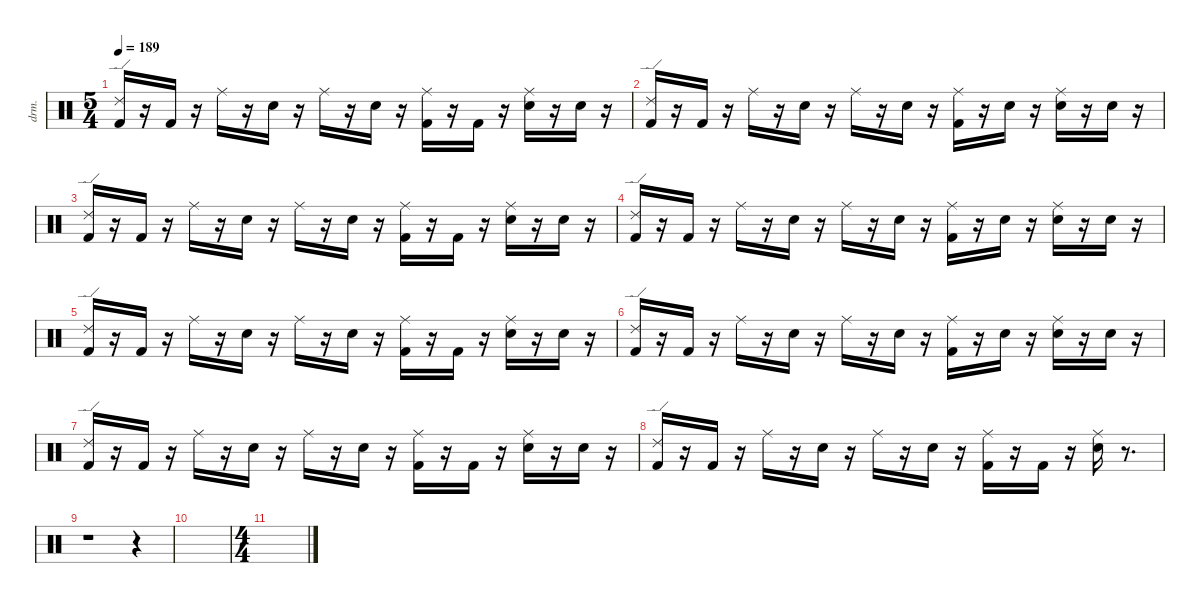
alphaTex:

\defaultSystemsLayout 4
\hideDynamics
\bracketExtendMode nobrackets
\track ("EZdrummer 3" "drm.") {instrument percussion}
\staff {score}
\articulation defaults
\ts (5 4)
\tempo 189
\clef neutral
\ks aminor
("Kick (hit) 2" "Ride (edge) 2").16{dy ff} r.16 "Kick (hit) 2".16{dy fff} r.16 "Ride (middle)"{acc #}.16{dy f} r.16 "Snare (hit) 2".16{dy ff} r.16 "Ride (middle)"{acc #}.16 r.16 "Snare (hit) 2".16 r.16 ("Kick (hit) 2" "Ride (middle)"{acc #}).16{dy f} r.16 "Kick (hit) 2".16{dy fff} r.16 ("Snare (hit) 2" "Ride (middle)"{acc #}).16{dy ff} r.16 "Snare (hit) 2".16{dy mp} r.16 |
("Kick (hit) 2" "Ride (edge) 2").16{dy f} r.16 "Kick (hit) 2".16{dy fff} r.16 "Ride (middle)"{acc #}.16{dy f} r.16 "Snare (hit) 2".16{dy ff} r.16 "Ride (middle)"{acc #}.16 r.16 "Snare (hit) 2".16 r.16 ("Kick (hit) 2" "Ride (middle)"{acc #}).16 r.16 "Snare (hit) 2".16{dy mf} r.16 ("Snare (hit) 2" "Ride (middle)"{acc #}).16{dy ff} r.16 "Snare (hit) 2".16{dy p} r.16 |
("Kick (hit) 2" "Ride (edge) 2").16{dy ff} r.16 "Kick (hit) 2".16{dy fff} r.16 "Ride (middle)"{acc #}.16{dy f} r.16 "Snare (hit) 2".16{dy ff} r.16 "Ride (middle)"{acc #}.16 r.16 "Snare (hit) 2".16 r.16 ("Kick (hit) 2" "Ride (middle)"{acc #}).16{dy f} r.16 "Kick (hit) 2".16{dy fff} r.16 ("Snare (hit) 2" "Ride (middle)"{acc #}).16{dy ff} r.16 "Snare (hit) 2".16{dy mp} r.16 |
("Kick (hit) 2" "Ride (edge) 2").16{dy f} r.16 "Kick (hit) 2".16{dy fff} r.16 "Ride (middle)"{acc #}.16{dy f} r.16 "Snare (hit) 2".16{dy ff} r.16 "Ride (middle)"{acc #}.16 r.16 "Snare (hit) 2".16 r.16 ("Kick (hit) 2" "Ride (middle)"{acc #}).16 r.16 "Snare (hit) 2".16{dy mf} r.16 ("Snare (hit) 2" "Ride (middle)"{acc #}).16{dy ff} r.16 "Snare (hit) 2".16{dy p} r.16 |
("Kick (hit) 2" "Ride (edge) 2").16{dy ff} r.16 "Kick (hit) 2".16{dy fff} r.16 "Ride (middle)"{acc #}.16{dy f} r.16 "Snare (hit) 2".16{dy ff} r.16 "Ride (middle)"{acc #}.16 r.16 "Snare (hit) 2".16 r.16 ("Kick (hit) 2" "Ride (middle)"{acc #}).16{dy f} r.16 "Kick (hit) 2".16{dy fff} r.16 ("Snare (hit) 2" "Ride (middle)"{acc #}).16{dy ff} r.16 "Snare (hit) 2".16{dy mp} r.16 |
("Kick (hit) 2" "Ride (edge) 2").16{dy f} r.16 "Kick (hit) 2".16{dy fff} r.16 "Ride (middle)"{acc #}.16{dy f} r.16 "Snare (hit) 2".16{dy ff} r.16 "Ride (middle)"{acc #}.16 r.16 "Snare (hit) 2".16 r.16 ("Kick (hit) 2" "Ride (middle)"{acc #}).16 r.16 "Snare (hit) 2".16{dy mf} r.16 ("Snare (hit) 2" "Ride (middle)"{acc #}).16{dy ff} r.16 "Snare (hit) 2".16{dy p} r.16 |
("Kick (hit) 2" "Ride (edge) 2").16{dy ff} r.16 "Kick (hit) 2".16{dy fff} r.16 "Ride (middle)"{acc #}.16{dy f} r.16 "Snare (hit) 2".16{dy ff} r.16 "Ride (middle)"{acc #}.16 r.16 "Snare (hit) 2".16 r.16 ("Kick (hit) 2" "Ride (middle)"{acc #}).16{dy f} r.16 "Kick (hit) 2".16{dy fff} r.16 ("Snare (hit) 2" "Ride (middle)"{acc #}).16{dy ff} r.16 "Snare (hit) 2".16{dy mp} r.16 |
("Kick (hit) 2" "Ride (edge) 2").16{dy f} r.16 "Kick (hit) 2".16{dy fff} r.16 "Ride (middle)"{acc #}.16{dy f} r.16 "Snare (hit) 2".16{dy ff} r.16 "Ride (middle)"{acc #}.16 r.16 "Snare (hit) 2".16 r.16 ("Kick (hit) 2" "Ride (middle)"{acc #}).16{dy f} r.16 "Kick (hit) 2".16{dy fff} r.16 ("Snare (hit) 2" "Ride (middle)"{acc #}).16{dy ff} r.8{d} |
r.1 r.4 |
|
\ts (4 4)
\ks c
